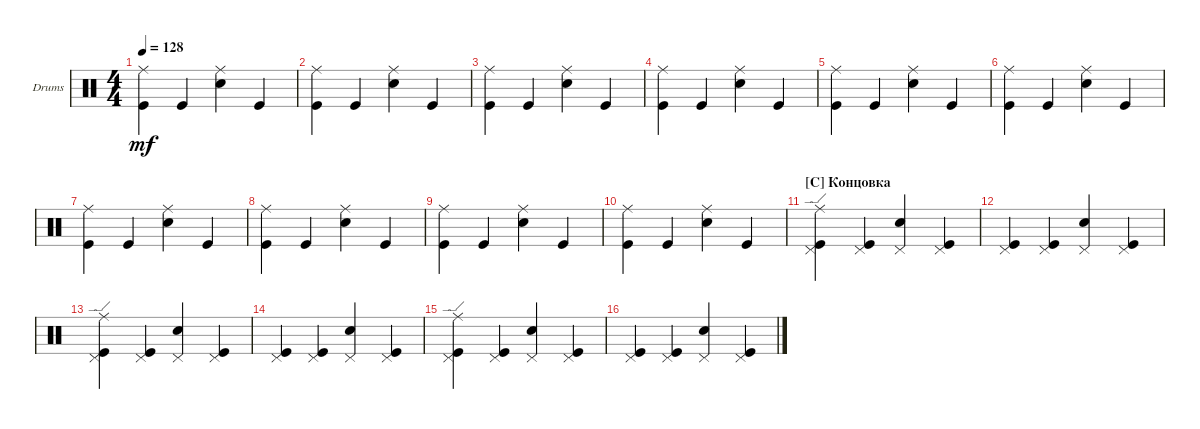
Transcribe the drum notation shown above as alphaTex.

\defaultSystemsLayout 4
\bracketExtendMode groupsimilarinstruments
\firstSystemTrackNameOrientation horizontal
\otherSystemsTrackNameOrientation horizontal
\track ("Drumkit" "Drums") {instrument percussion}
\staff {score}
\articulation defaults
\ts (4 4)
\tempo 128
\clef neutral
\ks c
("Kick (hit)" "Ride (middle)").4{dy mf} "Kick (hit)".4 ("Snare (hit) 2" "Ride (middle)").4 "Kick (hit)".4 |
("Kick (hit)" "Ride (middle)").4 "Kick (hit)".4 ("Snare (hit) 2" "Ride (middle)").4 "Kick (hit)".4 |
("Kick (hit)" "Ride (middle)").4 "Kick (hit)".4 ("Snare (hit) 2" "Ride (middle)").4 "Kick (hit)".4 |
("Kick (hit)" "Ride (middle)").4 "Kick (hit)".4 ("Snare (hit) 2" "Ride (middle)").4 "Kick (hit)".4 |
("Kick (hit)" "Ride (middle)").4 "Kick (hit)".4 ("Snare (hit) 2" "Ride (middle)").4 "Kick (hit)".4 |
("Kick (hit)" "Ride (middle)").4 "Kick (hit)".4 ("Snare (hit) 2" "Ride (middle)").4 "Kick (hit)".4 |
("Kick (hit)" "Ride (middle)").4 "Kick (hit)".4 ("Snare (hit) 2" "Ride (middle)").4 "Kick (hit)".4 |
("Kick (hit)" "Ride (middle)").4 "Kick (hit)".4 ("Snare (hit) 2" "Ride (middle)").4 "Kick (hit)".4 |
("Kick (hit)" "Ride (middle)").4 "Kick (hit)".4 ("Snare (hit) 2" "Ride (middle)").4 "Kick (hit)".4 |
("Kick (hit)" "Ride (middle)").4 "Kick (hit)".4 ("Snare (hit) 2" "Ride (middle)").4 "Kick (hit)".4 |
\section ("C" "Концовка")
("Kick (hit)" "Pedal Hi-Hat (hit)" "Ride (edge)").4 ("Kick (hit)" "Pedal Hi-Hat (hit)").4 ("Snare (hit) 2" "Pedal Hi-Hat (hit)").4 ("Kick (hit)" "Pedal Hi-Hat (hit)").4 |
("Kick (hit)" "Pedal Hi-Hat (hit)").4 ("Kick (hit)" "Pedal Hi-Hat (hit)").4 ("Snare (hit) 2" "Pedal Hi-Hat (hit)").4 ("Kick (hit)" "Pedal Hi-Hat (hit)").4 |
("Kick (hit)" "Pedal Hi-Hat (hit)" "Ride (edge)").4 ("Kick (hit)" "Pedal Hi-Hat (hit)").4 ("Snare (hit) 2" "Pedal Hi-Hat (hit)").4 ("Kick (hit)" "Pedal Hi-Hat (hit)").4 |
("Kick (hit)" "Pedal Hi-Hat (hit)").4 ("Kick (hit)" "Pedal Hi-Hat (hit)").4 ("Snare (hit) 2" "Pedal Hi-Hat (hit)").4 ("Kick (hit)" "Pedal Hi-Hat (hit)").4 |
("Kick (hit)" "Pedal Hi-Hat (hit)" "Ride (edge)").4 ("Kick (hit)" "Pedal Hi-Hat (hit)").4 ("Snare (hit) 2" "Pedal Hi-Hat (hit)").4 ("Kick (hit)" "Pedal Hi-Hat (hit)").4 |
("Kick (hit)" "Pedal Hi-Hat (hit)").4 ("Kick (hit)" "Pedal Hi-Hat (hit)").4 ("Snare (hit) 2" "Pedal Hi-Hat (hit)").4 ("Kick (hit)" "Pedal Hi-Hat (hit)").4
